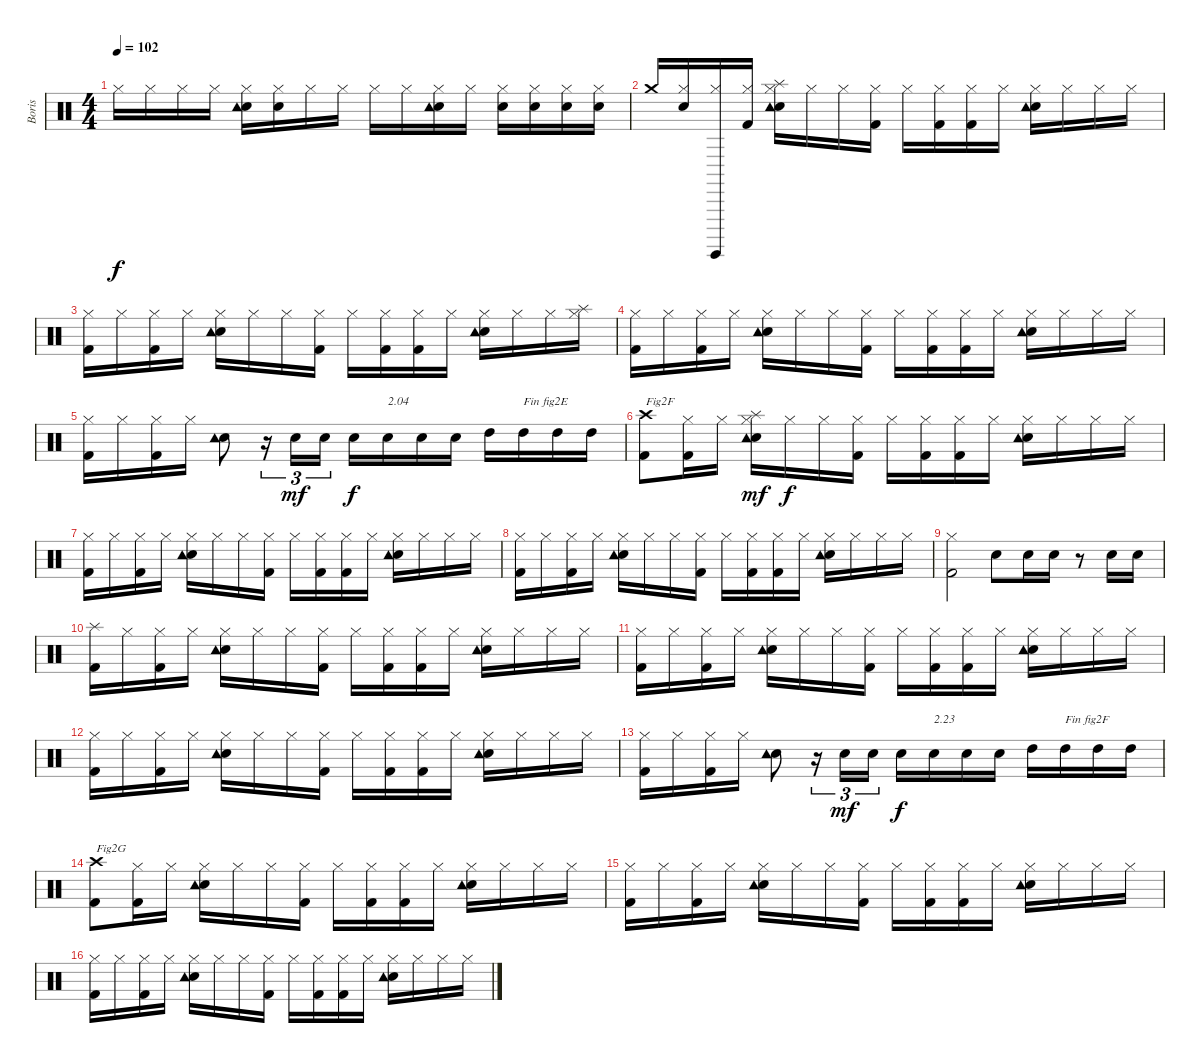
\track ("Boris" "Boris") {instrument percussion}
\staff {score}
\articulation defaults
\ts (4 4)
\tempo 102
\clef neutral
\ks c "Hi-Hat (closed)".16{dy f} "Hi-Hat (closed)".16 "Hi-Hat (closed)".16 "Hi-Hat (closed)".16
("Electric Snare (hit)" "Tambourine (hit)" "Hi-Hat (closed)").16 ("Electric Snare (hit)" "Hi-Hat (closed)").16 "Hi-Hat (closed)".16 "Hi-Hat (closed)".16 "Hi-Hat (closed)".16 "Hi-Hat (closed)".16 ("Electric Snare (hit)" "Tambourine (hit)" "Hi-Hat (closed)").16 "Hi-Hat (closed)".16 ("Electric Snare (hit)" "Hi-Hat (closed)").16 ("Electric Snare (hit)" "Hi-Hat (closed)").16 ("Electric Snare (hit)" "Hi-Hat (closed)").16 ("Electric Snare (hit)" "Hi-Hat (closed)").16 |
"Crash medium (hit)".16 ("Electric Snare (hit)" "Hi-Hat (closed)").16 ("Surdo (hit)" "Hi-Hat (closed)").16 ("Kick (hit) 2" "Hi-Hat (closed)").16 ("Electric Snare (hit)" "Tambourine (hit)" "Hi-Hat (closed)" "Splash (hit)").16 "Hi-Hat (closed)".16 "Hi-Hat (closed)".16 ("Kick (hit) 2" "Hi-Hat (closed)").16 "Hi-Hat (closed)".16 ("Kick (hit) 2" "Hi-Hat (closed)").16 ("Kick (hit) 2" "Hi-Hat (closed)").16 "Hi-Hat (closed)".16 ("Electric Snare (hit)" "Tambourine (hit)" "Hi-Hat (closed)").16 "Hi-Hat (closed)".16 "Hi-Hat (closed)".16 "Hi-Hat (closed)".16 |
("Kick (hit) 2" "Hi-Hat (closed)").16 "Hi-Hat (closed)".16 ("Kick (hit) 2" "Hi-Hat (closed)").16 "Hi-Hat (closed)".16 ("Electric Snare (hit)" "Tambourine (hit)" "Hi-Hat (closed)").16 "Hi-Hat (closed)".16 "Hi-Hat (closed)".16 ("Kick (hit) 2" "Hi-Hat (closed)").16 "Hi-Hat (closed)".16 ("Kick (hit) 2" "Hi-Hat (closed)").16 ("Kick (hit) 2" "Hi-Hat (closed)").16 "Hi-Hat (closed)".16 ("Electric Snare (hit)" "Tambourine (hit)" "Hi-Hat (closed)").16 "Hi-Hat (closed)".16 "Hi-Hat (closed)".16 ("Hi-Hat (closed)" "Splash (hit)").16 |
("Kick (hit) 2" "Hi-Hat (closed)").16 "Hi-Hat (closed)".16 ("Kick (hit) 2" "Hi-Hat (closed)").16 "Hi-Hat (closed)".16 ("Electric Snare (hit)" "Tambourine (hit)" "Hi-Hat (closed)").16 "Hi-Hat (closed)".16 "Hi-Hat (closed)".16 ("Kick (hit) 2" "Hi-Hat (closed)").16 "Hi-Hat (closed)".16 ("Kick (hit) 2" "Hi-Hat (closed)").16 ("Kick (hit) 2" "Hi-Hat (closed)").16 "Hi-Hat (closed)".16 ("Electric Snare (hit)" "Tambourine (hit)" "Hi-Hat (closed)").16 "Hi-Hat (closed)".16 "Hi-Hat (closed)".16 "Hi-Hat (closed)".16 |
("Kick (hit) 2" "Hi-Hat (closed)").16 "Hi-Hat (closed)".16 ("Kick (hit) 2" "Hi-Hat (closed)").16 "Hi-Hat (closed)".16 ("Electric Snare (hit)" "Tambourine (hit)").8 r.16{tu (3 2)} "Electric Snare (hit)".16{tu (3 2) dy mf} "Electric Snare (hit)".16{tu (3 2)} "Electric Snare (hit)".16{dy f} "Electric Snare (hit)".16{txt "2.04"} "Electric Snare (hit)".16 "Electric Snare (hit)".16 "High Tom (hit)".16 "High Tom (hit)".16{txt "Fin fig2E"} "High Tom (hit)".16 "High Tom (hit)".16 |
("Kick (hit) 2" "Crash high (hit)").8{txt "Fig2F"} ("Kick (hit) 2" "Hi-Hat (closed)").16 "Hi-Hat (closed)".16 ("Electric Snare (hit)" "Tambourine (hit)" "Hi-Hat (closed)" "Splash (hit)").16{dy mf} "Hi-Hat (closed)".16{dy f} "Hi-Hat (closed)".16 ("Kick (hit) 2" "Hi-Hat (closed)").16 "Hi-Hat (closed)".16 ("Kick (hit) 2" "Hi-Hat (closed)").16 ("Kick (hit) 2" "Hi-Hat (closed)").16 "Hi-Hat (closed)".16 ("Electric Snare (hit)" "Tambourine (hit)" "Hi-Hat (closed)").16 "Hi-Hat (closed)".16 "Hi-Hat (closed)".16 "Hi-Hat (closed)".16 |
("Kick (hit) 2" "Hi-Hat (closed)").16 "Hi-Hat (closed)".16 ("Kick (hit) 2" "Hi-Hat (closed)").16 "Hi-Hat (closed)".16 ("Electric Snare (hit)" "Tambourine (hit)" "Hi-Hat (closed)").16 "Hi-Hat (closed)".16 "Hi-Hat (closed)".16 ("Kick (hit) 2" "Hi-Hat (closed)").16 "Hi-Hat (closed)".16 ("Kick (hit) 2" "Hi-Hat (closed)").16 ("Kick (hit) 2" "Hi-Hat (closed)").16 "Hi-Hat (closed)".16 ("Electric Snare (hit)" "Tambourine (hit)" "Hi-Hat (closed)").16 "Hi-Hat (closed)".16 "Hi-Hat (closed)".16 "Hi-Hat (closed)".16 |
("Kick (hit) 2" "Hi-Hat (closed)").16 "Hi-Hat (closed)".16 ("Kick (hit) 2" "Hi-Hat (closed)").16 "Hi-Hat (closed)".16 ("Electric Snare (hit)" "Tambourine (hit)" "Hi-Hat (closed)").16 "Hi-Hat (closed)".16 "Hi-Hat (closed)".16 ("Kick (hit) 2" "Hi-Hat (closed)").16 "Hi-Hat (closed)".16 ("Kick (hit) 2" "Hi-Hat (closed)").16 ("Kick (hit) 2" "Hi-Hat (closed)").16 "Hi-Hat (closed)".16 ("Electric Snare (hit)" "Tambourine (hit)" "Hi-Hat (closed)").16 "Hi-Hat (closed)".16 "Hi-Hat (closed)".16 "Hi-Hat (closed)".16 |
("Kick (hit) 2" "Hi-Hat (closed)").2 "Electric Snare (hit)".8 "Electric Snare (hit)".16 "Electric Snare (hit)".16 r.8 "Electric Snare (hit)".16 "Electric Snare (hit)".16 |
("Kick (hit) 2" "Splash (hit)").16 "Hi-Hat (closed)".16 ("Kick (hit) 2" "Hi-Hat (closed)").16 "Hi-Hat (closed)".16 ("Electric Snare (hit)" "Tambourine (hit)" "Hi-Hat (closed)").16 "Hi-Hat (closed)".16 "Hi-Hat (closed)".16 ("Kick (hit) 2" "Hi-Hat (closed)").16 "Hi-Hat (closed)".16 ("Kick (hit) 2" "Hi-Hat (closed)").16 ("Kick (hit) 2" "Hi-Hat (closed)").16 "Hi-Hat (closed)".16 ("Electric Snare (hit)" "Tambourine (hit)" "Hi-Hat (closed)").16 "Hi-Hat (closed)".16 "Hi-Hat (closed)".16 "Hi-Hat (closed)".16 |
("Kick (hit) 2" "Hi-Hat (closed)").16 "Hi-Hat (closed)".16 ("Kick (hit) 2" "Hi-Hat (closed)").16 "Hi-Hat (closed)".16 ("Electric Snare (hit)" "Tambourine (hit)" "Hi-Hat (closed)").16 "Hi-Hat (closed)".16 "Hi-Hat (closed)".16 ("Kick (hit) 2" "Hi-Hat (closed)").16 "Hi-Hat (closed)".16 ("Kick (hit) 2" "Hi-Hat (closed)").16 ("Kick (hit) 2" "Hi-Hat (closed)").16 "Hi-Hat (closed)".16 ("Electric Snare (hit)" "Tambourine (hit)" "Hi-Hat (closed)").16 "Hi-Hat (closed)".16 "Hi-Hat (closed)".16 "Hi-Hat (closed)".16 |
("Kick (hit) 2" "Hi-Hat (closed)").16 "Hi-Hat (closed)".16 ("Kick (hit) 2" "Hi-Hat (closed)").16 "Hi-Hat (closed)".16 ("Electric Snare (hit)" "Tambourine (hit)" "Hi-Hat (closed)").16 "Hi-Hat (closed)".16 "Hi-Hat (closed)".16 ("Kick (hit) 2" "Hi-Hat (closed)").16 "Hi-Hat (closed)".16 ("Kick (hit) 2" "Hi-Hat (closed)").16 ("Kick (hit) 2" "Hi-Hat (closed)").16 "Hi-Hat (closed)".16 ("Electric Snare (hit)" "Tambourine (hit)" "Hi-Hat (closed)").16 "Hi-Hat (closed)".16 "Hi-Hat (closed)".16 "Hi-Hat (closed)".16 |
("Kick (hit) 2" "Hi-Hat (closed)").16 "Hi-Hat (closed)".16 ("Kick (hit) 2" "Hi-Hat (closed)").16 "Hi-Hat (closed)".16 ("Electric Snare (hit)" "Tambourine (hit)").8 r.16{tu (3 2)} "Electric Snare (hit)".16{tu (3 2) dy mf} "Electric Snare (hit)".16{tu (3 2)} "Electric Snare (hit)".16{dy f} "Electric Snare (hit)".16{txt "2.23"} "Electric Snare (hit)".16 "Electric Snare (hit)".16 "High Tom (hit)".16 "High Tom (hit)".16{txt "Fin fig2F"} "High Tom (hit)".16 "High Tom (hit)".16 |
("Kick (hit) 2" "Crash high (hit)").8{txt "Fig2G"} ("Kick (hit) 2" "Hi-Hat (closed)").16 "Hi-Hat (closed)".16 ("Electric Snare (hit)" "Tambourine (hit)" "Hi-Hat (closed)").16 "Hi-Hat (closed)".16 "Hi-Hat (closed)".16 ("Kick (hit) 2" "Hi-Hat (closed)").16 "Hi-Hat (closed)".16 ("Kick (hit) 2" "Hi-Hat (closed)").16 ("Kick (hit) 2" "Hi-Hat (closed)").16 "Hi-Hat (closed)".16 ("Electric Snare (hit)" "Tambourine (hit)" "Hi-Hat (closed)").16 "Hi-Hat (closed)".16 "Hi-Hat (closed)".16 "Hi-Hat (closed)".16 |
("Kick (hit) 2" "Hi-Hat (closed)").16 "Hi-Hat (closed)".16 ("Kick (hit) 2" "Hi-Hat (closed)").16 "Hi-Hat (closed)".16 ("Electric Snare (hit)" "Tambourine (hit)" "Hi-Hat (closed)").16 "Hi-Hat (closed)".16 "Hi-Hat (closed)".16 ("Kick (hit) 2" "Hi-Hat (closed)").16 "Hi-Hat (closed)".16 ("Kick (hit) 2" "Hi-Hat (closed)").16 ("Kick (hit) 2" "Hi-Hat (closed)").16 "Hi-Hat (closed)".16 ("Electric Snare (hit)" "Tambourine (hit)" "Hi-Hat (closed)").16 "Hi-Hat (closed)".16 "Hi-Hat (closed)".16 "Hi-Hat (closed)".16 |
("Kick (hit) 2" "Hi-Hat (closed)").16 "Hi-Hat (closed)".16 ("Kick (hit) 2" "Hi-Hat (closed)").16 "Hi-Hat (closed)".16 ("Electric Snare (hit)" "Tambourine (hit)" "Hi-Hat (closed)").16 "Hi-Hat (closed)".16 "Hi-Hat (closed)".16 ("Kick (hit) 2" "Hi-Hat (closed)").16 "Hi-Hat (closed)".16 ("Kick (hit) 2" "Hi-Hat (closed)").16 ("Kick (hit) 2" "Hi-Hat (closed)").16 "Hi-Hat (closed)".16 ("Electric Snare (hit)" "Tambourine (hit)" "Hi-Hat (closed)").16 "Hi-Hat (closed)".16 "Hi-Hat (closed)".16 "Hi-Hat (closed)".16
